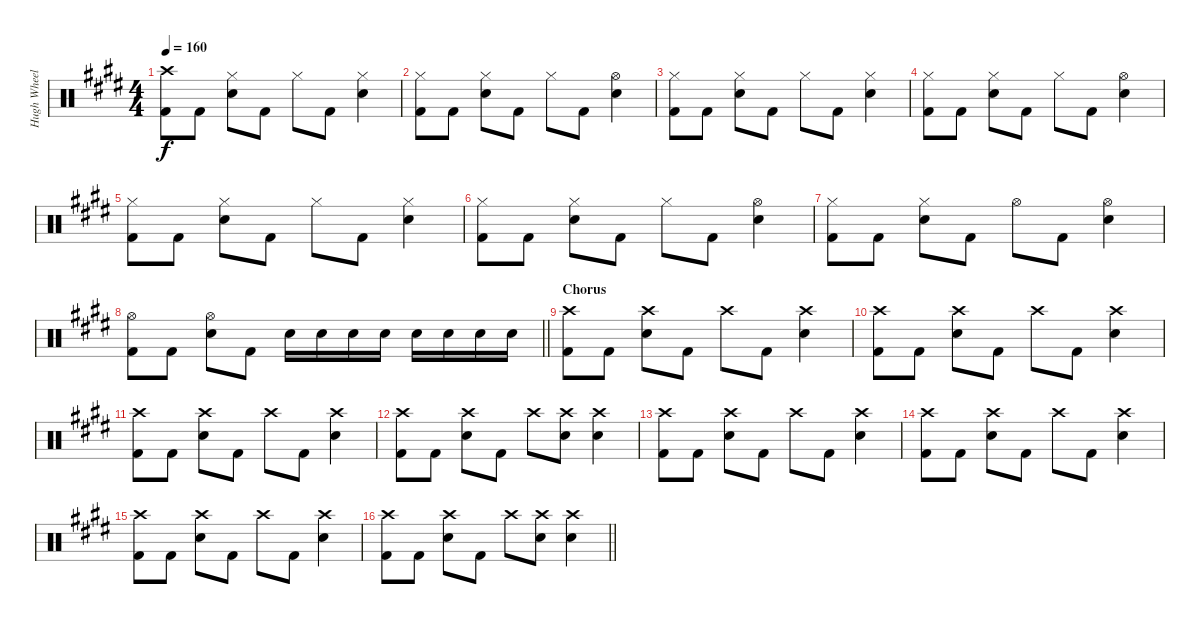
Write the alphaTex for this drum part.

\track ("Hugh Wheeler - Drums" "Hugh Wheel") {instrument percussion}
\staff {score}
\articulation defaults
\ts (4 4)
\tempo 160
\clef neutral
\ks e
("Crash high (hit)" "Kick (hit) 2").8{dy f} "Kick (hit) 2".8 ("Hi-Hat (closed)" "Electric Snare (hit)").8 "Kick (hit) 2".8 "Hi-Hat (closed)".8 "Kick (hit) 2".8 ("Hi-Hat (closed)" "Electric Snare (hit)").4 |
("Hi-Hat (closed)" "Kick (hit) 2").8 "Kick (hit) 2".8 ("Hi-Hat (closed)" "Electric Snare (hit)").8 "Kick (hit) 2".8 "Hi-Hat (closed)".8 "Kick (hit) 2".8 ("Hi-Hat (open)" "Electric Snare (hit)").4 |
("Hi-Hat (closed)" "Kick (hit) 2").8 "Kick (hit) 2".8 ("Hi-Hat (closed)" "Electric Snare (hit)").8 "Kick (hit) 2".8 "Hi-Hat (closed)".8 "Kick (hit) 2".8 ("Hi-Hat (closed)" "Electric Snare (hit)").4 |
("Hi-Hat (closed)" "Kick (hit) 2").8 "Kick (hit) 2".8 ("Hi-Hat (closed)" "Electric Snare (hit)").8 "Kick (hit) 2".8 "Hi-Hat (closed)".8 "Kick (hit) 2".8 ("Hi-Hat (open)" "Electric Snare (hit)").4 |
("Hi-Hat (closed)" "Kick (hit) 2").8 "Kick (hit) 2".8 ("Hi-Hat (closed)" "Electric Snare (hit)").8 "Kick (hit) 2".8 "Hi-Hat (closed)".8 "Kick (hit) 2".8 ("Hi-Hat (closed)" "Electric Snare (hit)").4 |
("Hi-Hat (closed)" "Kick (hit) 2").8 "Kick (hit) 2".8 ("Hi-Hat (closed)" "Electric Snare (hit)").8 "Kick (hit) 2".8 "Hi-Hat (closed)".8 "Kick (hit) 2".8 ("Hi-Hat (open)" "Electric Snare (hit)").4 |
("Hi-Hat (closed)" "Kick (hit) 2").8 "Kick (hit) 2".8 ("Hi-Hat (closed)" "Electric Snare (hit)").8 "Kick (hit) 2".8 "Hi-Hat (open)".8 "Kick (hit) 2".8 ("Hi-Hat (open)" "Electric Snare (hit)").4 |
\barLineRight lightlight
("Hi-Hat (open)" "Kick (hit) 2").8 "Kick (hit) 2".8 ("Hi-Hat (open)" "Electric Snare (hit)").8 "Kick (hit) 2".8 "Electric Snare (hit)".16 "Electric Snare (hit)".16 "Electric Snare (hit)".16 "Electric Snare (hit)".16 "Electric Snare (hit)".16 "Electric Snare (hit)".16 "Electric Snare (hit)".16 "Electric Snare (hit)".16 |
\section ("" "Chorus")
("Crash high (hit)" "Kick (hit) 2").8 "Kick (hit) 2".8 ("Crash high (hit)" "Electric Snare (hit)").8 "Kick (hit) 2".8 "Crash high (hit)".8 "Kick (hit) 2".8 ("Crash high (hit)" "Electric Snare (hit)").4 |
("Crash high (hit)" "Kick (hit) 2").8 "Kick (hit) 2".8 ("Crash high (hit)" "Electric Snare (hit)").8 "Kick (hit) 2".8 "Crash high (hit)".8 "Kick (hit) 2".8 ("Crash high (hit)" "Electric Snare (hit)").4 |
("Crash high (hit)" "Kick (hit) 2").8 "Kick (hit) 2".8 ("Crash high (hit)" "Electric Snare (hit)").8 "Kick (hit) 2".8 "Crash high (hit)".8 "Kick (hit) 2".8 ("Crash high (hit)" "Electric Snare (hit)").4 |
("Crash high (hit)" "Kick (hit) 2").8 "Kick (hit) 2".8 ("Crash high (hit)" "Electric Snare (hit)").8 "Kick (hit) 2".8 "Crash high (hit)".8 ("Crash high (hit)" "Electric Snare (hit)").8 ("Crash high (hit)" "Electric Snare (hit)").4 |
("Crash high (hit)" "Kick (hit) 2").8 "Kick (hit) 2".8 ("Crash high (hit)" "Electric Snare (hit)").8 "Kick (hit) 2".8 "Crash high (hit)".8 "Kick (hit) 2".8 ("Crash high (hit)" "Electric Snare (hit)").4 |
("Crash high (hit)" "Kick (hit) 2").8 "Kick (hit) 2".8 ("Crash high (hit)" "Electric Snare (hit)").8 "Kick (hit) 2".8 "Crash high (hit)".8 "Kick (hit) 2".8 ("Crash high (hit)" "Electric Snare (hit)").4 |
("Crash high (hit)" "Kick (hit) 2").8 "Kick (hit) 2".8 ("Crash high (hit)" "Electric Snare (hit)").8 "Kick (hit) 2".8 "Crash high (hit)".8 "Kick (hit) 2".8 ("Crash high (hit)" "Electric Snare (hit)").4 |
\barLineRight lightlight
("Crash high (hit)" "Kick (hit) 2").8 "Kick (hit) 2".8 ("Crash high (hit)" "Electric Snare (hit)").8 "Kick (hit) 2".8 "Crash high (hit)".8 ("Crash high (hit)" "Electric Snare (hit)").8 ("Crash high (hit)" "Electric Snare (hit)").4
